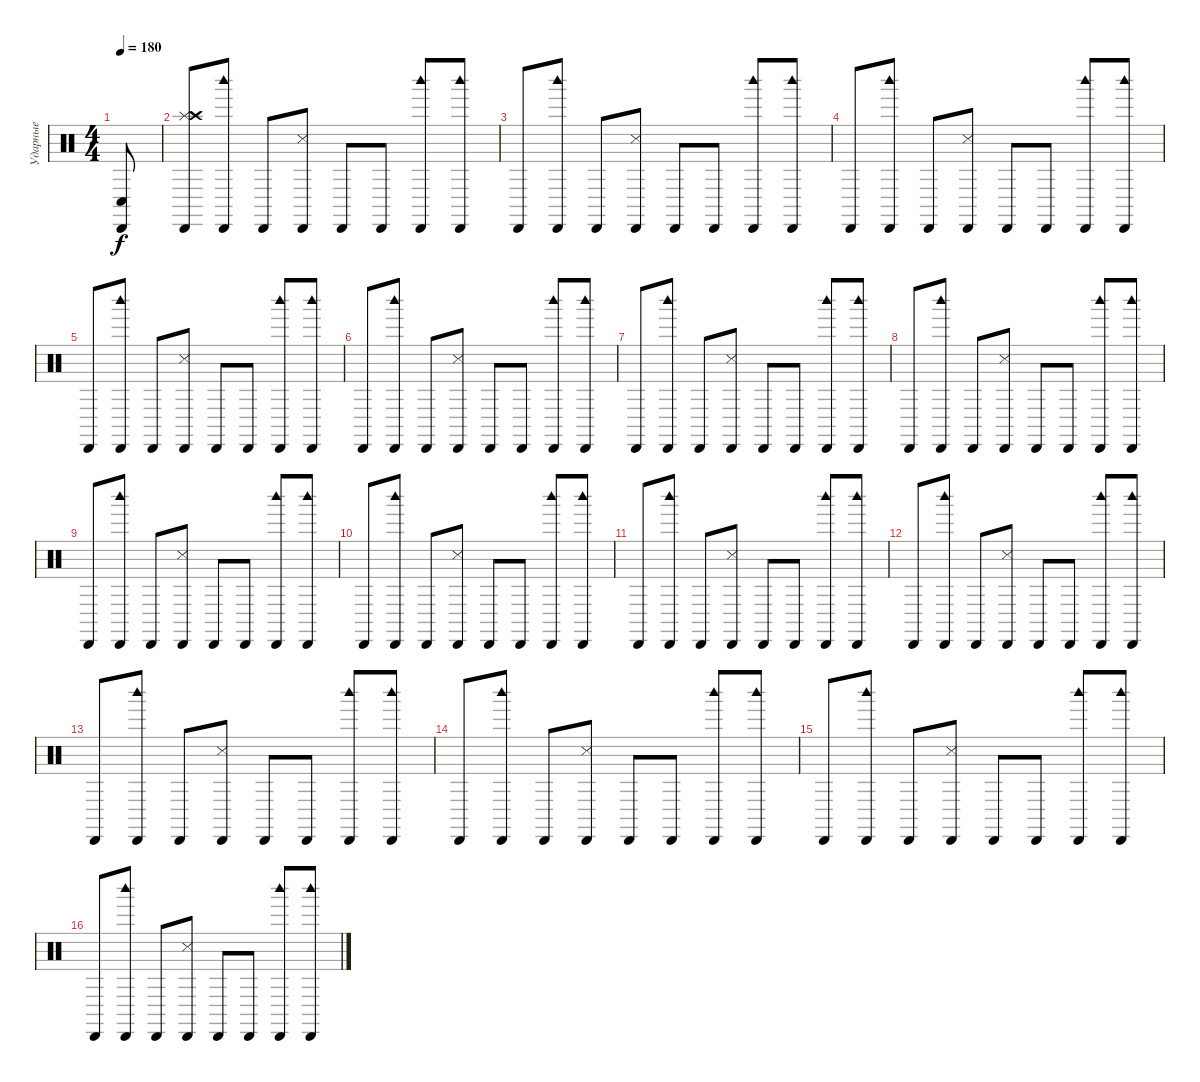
\track ("Ударные" "Ударные") {instrument percussion}
\staff {score}
\articulation defaults
\ts (4 4)
\tempo 180
\clef neutral
\ks c
("Cabasa (hit)" "Conga low (hit)").8{dy f} |
("Splash (hit)" "Cabasa (hit)" "Crash high (hit)").8 ("Woodblock high (hit)" "Cabasa (hit)").8 "Cabasa (hit)".8 ("Cabasa (hit)" "Snare (side stick) 3").8 "Cabasa (hit)".8 "Cabasa (hit)".8 ("Woodblock high (hit)" "Cabasa (hit)").8 ("Woodblock high (hit)" "Cabasa (hit)").8 |
"Cabasa (hit)".8 ("Woodblock high (hit)" "Cabasa (hit)").8 "Cabasa (hit)".8 ("Cabasa (hit)" "Snare (side stick) 3").8 "Cabasa (hit)".8 "Cabasa (hit)".8 ("Woodblock high (hit)" "Cabasa (hit)").8 ("Woodblock high (hit)" "Cabasa (hit)").8 |
"Cabasa (hit)".8 ("Woodblock high (hit)" "Cabasa (hit)").8 "Cabasa (hit)".8 ("Cabasa (hit)" "Snare (side stick) 3").8 "Cabasa (hit)".8 "Cabasa (hit)".8 ("Woodblock high (hit)" "Cabasa (hit)").8 ("Woodblock high (hit)" "Cabasa (hit)").8 |
"Cabasa (hit)".8 ("Woodblock high (hit)" "Cabasa (hit)").8 "Cabasa (hit)".8 ("Cabasa (hit)" "Snare (side stick) 3").8 "Cabasa (hit)".8 "Cabasa (hit)".8 ("Woodblock high (hit)" "Cabasa (hit)").8 ("Woodblock high (hit)" "Cabasa (hit)").8 |
"Cabasa (hit)".8 ("Woodblock high (hit)" "Cabasa (hit)").8 "Cabasa (hit)".8 ("Cabasa (hit)" "Snare (side stick) 3").8 "Cabasa (hit)".8 "Cabasa (hit)".8 ("Woodblock high (hit)" "Cabasa (hit)").8 ("Woodblock high (hit)" "Cabasa (hit)").8 |
"Cabasa (hit)".8 ("Woodblock high (hit)" "Cabasa (hit)").8 "Cabasa (hit)".8 ("Cabasa (hit)" "Snare (side stick) 3").8 "Cabasa (hit)".8 "Cabasa (hit)".8 ("Woodblock high (hit)" "Cabasa (hit)").8 ("Woodblock high (hit)" "Cabasa (hit)").8 |
"Cabasa (hit)".8 ("Woodblock high (hit)" "Cabasa (hit)").8 "Cabasa (hit)".8 ("Cabasa (hit)" "Snare (side stick) 3").8 "Cabasa (hit)".8 "Cabasa (hit)".8 ("Woodblock high (hit)" "Cabasa (hit)").8 ("Woodblock high (hit)" "Cabasa (hit)").8 |
"Cabasa (hit)".8 ("Woodblock high (hit)" "Cabasa (hit)").8 "Cabasa (hit)".8 ("Cabasa (hit)" "Snare (side stick) 3").8 "Cabasa (hit)".8 "Cabasa (hit)".8 ("Woodblock high (hit)" "Cabasa (hit)").8 ("Woodblock high (hit)" "Cabasa (hit)").8 |
"Cabasa (hit)".8 ("Woodblock high (hit)" "Cabasa (hit)").8 "Cabasa (hit)".8 ("Cabasa (hit)" "Snare (side stick) 3").8 "Cabasa (hit)".8 "Cabasa (hit)".8 ("Woodblock high (hit)" "Cabasa (hit)").8 ("Woodblock high (hit)" "Cabasa (hit)").8 |
"Cabasa (hit)".8 ("Woodblock high (hit)" "Cabasa (hit)").8 "Cabasa (hit)".8 ("Cabasa (hit)" "Snare (side stick) 3").8 "Cabasa (hit)".8 "Cabasa (hit)".8 ("Woodblock high (hit)" "Cabasa (hit)").8 ("Woodblock high (hit)" "Cabasa (hit)").8 |
"Cabasa (hit)".8 ("Woodblock high (hit)" "Cabasa (hit)").8 "Cabasa (hit)".8 ("Cabasa (hit)" "Snare (side stick) 3").8 "Cabasa (hit)".8 "Cabasa (hit)".8 ("Woodblock high (hit)" "Cabasa (hit)").8 ("Woodblock high (hit)" "Cabasa (hit)").8 |
"Cabasa (hit)".8 ("Woodblock high (hit)" "Cabasa (hit)").8 "Cabasa (hit)".8 ("Cabasa (hit)" "Snare (side stick) 3").8 "Cabasa (hit)".8 "Cabasa (hit)".8 ("Woodblock high (hit)" "Cabasa (hit)").8 ("Woodblock high (hit)" "Cabasa (hit)").8 |
"Cabasa (hit)".8 ("Woodblock high (hit)" "Cabasa (hit)").8 "Cabasa (hit)".8 ("Cabasa (hit)" "Snare (side stick) 3").8 "Cabasa (hit)".8 "Cabasa (hit)".8 ("Woodblock high (hit)" "Cabasa (hit)").8 ("Woodblock high (hit)" "Cabasa (hit)").8 |
"Cabasa (hit)".8 ("Woodblock high (hit)" "Cabasa (hit)").8 "Cabasa (hit)".8 ("Cabasa (hit)" "Snare (side stick) 3").8 "Cabasa (hit)".8 "Cabasa (hit)".8 ("Woodblock high (hit)" "Cabasa (hit)").8 ("Woodblock high (hit)" "Cabasa (hit)").8 |
"Cabasa (hit)".8 ("Woodblock high (hit)" "Cabasa (hit)").8 "Cabasa (hit)".8 ("Cabasa (hit)" "Snare (side stick) 3").8 "Cabasa (hit)".8 "Cabasa (hit)".8 ("Woodblock high (hit)" "Cabasa (hit)").8 ("Woodblock high (hit)" "Cabasa (hit)").8
